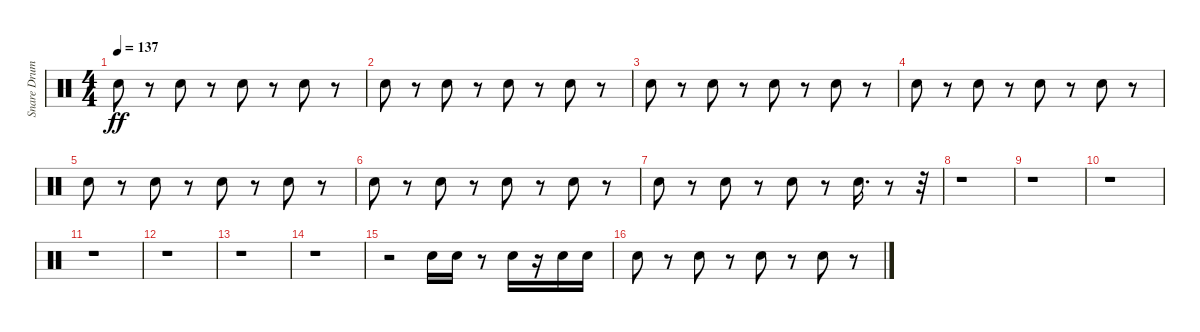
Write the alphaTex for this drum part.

\track ("Snare Drum" "Snare Drum") {instrument percussion}
\staff {score}
\articulation defaults
\ts (4 4)
\tempo 137
\clef neutral
\ks c "Snare (hit) 2".8{dy ff}
r.8 "Snare (hit) 2".8 r.8 "Snare (hit) 2".8 r.8 "Snare (hit) 2".8 r.8 |
"Snare (hit) 2".8 r.8 "Snare (hit) 2".8 r.8 "Snare (hit) 2".8 r.8 "Snare (hit) 2".8 r.8 |
"Snare (hit) 2".8 r.8 "Snare (hit) 2".8 r.8 "Snare (hit) 2".8 r.8 "Snare (hit) 2".8 r.8 |
"Snare (hit) 2".8 r.8 "Snare (hit) 2".8 r.8 "Snare (hit) 2".8 r.8 "Snare (hit) 2".8 r.8 |
"Snare (hit) 2".8 r.8 "Snare (hit) 2".8 r.8 "Snare (hit) 2".8 r.8 "Snare (hit) 2".8 r.8 |
"Snare (hit) 2".8 r.8 "Snare (hit) 2".8 r.8 "Snare (hit) 2".8 r.8 "Snare (hit) 2".8 r.8 |
"Snare (hit) 2".8 r.8 "Snare (hit) 2".8 r.8 "Snare (hit) 2".8 r.8 "Snare (hit) 2".16{d} r.8 r.32 |
r.1 |
r.1 |
r.1 |
r.1 |
r.1 |
r.1 |
r.1 |
r.2 "Snare (hit) 2".16 "Snare (hit) 2".16 r.8 "Snare (hit) 2".16 r.16 "Snare (hit) 2".16 "Snare (hit) 2".16 |
"Snare (hit) 2".8 r.8 "Snare (hit) 2".8 r.8 "Snare (hit) 2".8 r.8 "Snare (hit) 2".8 r.8
